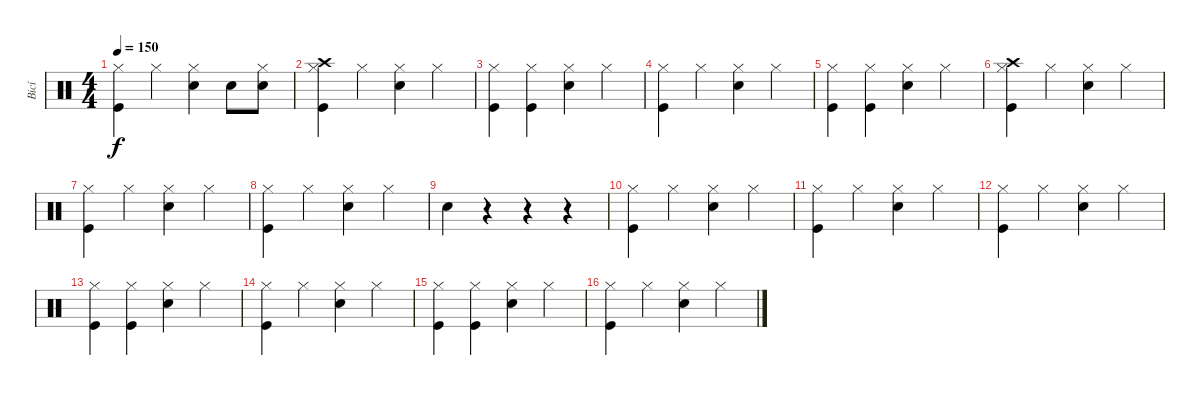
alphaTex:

\track ("Bicí" "Bicí") {instrument percussion}
\staff {score}
\articulation defaults
\ts (4 4)
\tempo 150
\clef neutral
\ks c
("Kick (hit)" "Hi-Hat (closed)").4{dy f} "Hi-Hat (closed)".4 ("Snare (hit) 2" "Hi-Hat (closed)").4 "Snare (hit) 2".8 ("Snare (hit) 2" "Hi-Hat (closed)").8 |
("Kick (hit)" "Crash high (hit)" "Hi-Hat (closed)").4 "Hi-Hat (closed)".4 ("Snare (hit) 2" "Hi-Hat (closed)").4 "Hi-Hat (closed)".4 |
("Kick (hit)" "Hi-Hat (closed)").4 ("Kick (hit)" "Hi-Hat (closed)").4 ("Snare (hit) 2" "Hi-Hat (closed)").4 "Hi-Hat (closed)".4 |
("Kick (hit)" "Hi-Hat (closed)").4 "Hi-Hat (closed)".4 ("Snare (hit) 2" "Hi-Hat (closed)").4 "Hi-Hat (closed)".4 |
("Kick (hit)" "Hi-Hat (closed)").4 ("Kick (hit)" "Hi-Hat (closed)").4 ("Snare (hit) 2" "Hi-Hat (closed)").4 "Hi-Hat (closed)".4 |
("Kick (hit)" "Crash high (hit)" "Hi-Hat (closed)").4 "Hi-Hat (closed)".4 ("Snare (hit) 2" "Hi-Hat (closed)").4 "Hi-Hat (closed)".4 |
("Kick (hit)" "Hi-Hat (closed)").4 "Hi-Hat (closed)".4 ("Snare (hit) 2" "Hi-Hat (closed)").4 "Hi-Hat (closed)".4 |
("Kick (hit)" "Hi-Hat (closed)").4 "Hi-Hat (closed)".4 ("Snare (hit) 2" "Hi-Hat (closed)").4 "Hi-Hat (closed)".4 |
"Snare (hit) 2".4 r.4 r.4 r.4 |
("Kick (hit)" "Hi-Hat (closed)").4 "Hi-Hat (closed)".4 ("Snare (hit) 2" "Hi-Hat (closed)").4 "Hi-Hat (closed)".4 |
("Kick (hit)" "Hi-Hat (closed)").4 "Hi-Hat (closed)".4 ("Snare (hit) 2" "Hi-Hat (closed)").4 "Hi-Hat (closed)".4 |
("Kick (hit)" "Hi-Hat (closed)").4 "Hi-Hat (closed)".4 ("Snare (hit) 2" "Hi-Hat (closed)").4 "Hi-Hat (closed)".4 |
("Kick (hit)" "Hi-Hat (closed)").4 ("Kick (hit)" "Hi-Hat (closed)").4 ("Snare (hit) 2" "Hi-Hat (closed)").4 "Hi-Hat (closed)".4 |
("Kick (hit)" "Hi-Hat (closed)").4 "Hi-Hat (closed)".4 ("Snare (hit) 2" "Hi-Hat (closed)").4 "Hi-Hat (closed)".4 |
("Kick (hit)" "Hi-Hat (closed)").4 ("Kick (hit)" "Hi-Hat (closed)").4 ("Snare (hit) 2" "Hi-Hat (closed)").4 "Hi-Hat (closed)".4 |
("Kick (hit)" "Hi-Hat (closed)").4 "Hi-Hat (closed)".4 ("Snare (hit) 2" "Hi-Hat (closed)").4 "Hi-Hat (closed)".4
